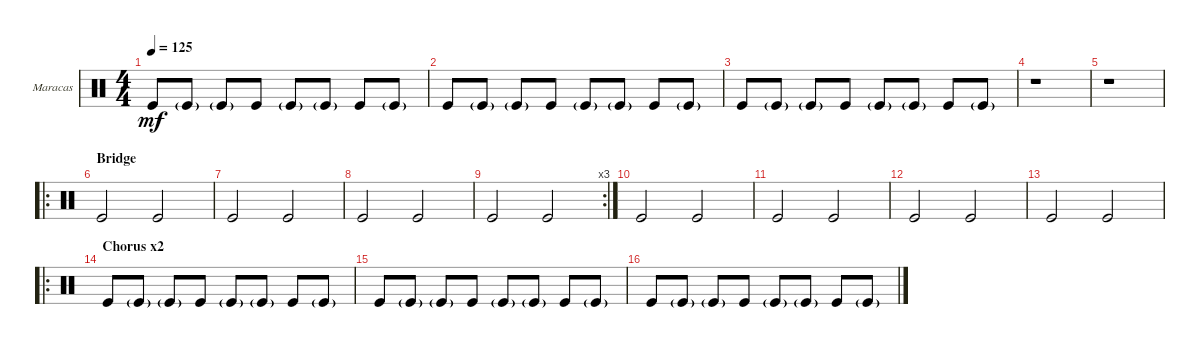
\defaultSystemsLayout 4
\bracketExtendMode groupsimilarinstruments
\firstSystemTrackNameOrientation horizontal
\otherSystemsTrackNameOrientation horizontal
\track ("Maracas" "Maracas") {instrument percussion}
\staff {score}
\articulation defaults
\ts (4 4)
\tempo 125
\clef neutral
\scale
0.333333
\ks c "Kick (hit)".8{dy mf} "Kick (hit)"{g}.8 "Kick (hit)"{g}.8 "Kick (hit)".8 "Kick (hit)"{g}.8 "Kick (hit)"{g}.8 "Kick (hit)".8 "Kick (hit)"{g}.8
|
\scale
0.333333 "Kick (hit)".8 "Kick (hit)"{g}.8 "Kick (hit)"{g}.8 "Kick (hit)".8 "Kick (hit)"{g}.8 "Kick (hit)"{g}.8 "Kick (hit)".8 "Kick (hit)"{g}.8 |
\scale
0.333333 "Kick (hit)".8 "Kick (hit)"{g}.8 "Kick (hit)"{g}.8 "Kick (hit)".8 "Kick (hit)"{g}.8 "Kick (hit)"{g}.8 "Kick (hit)".8 "Kick (hit)"{g}.8 |
\scale
0.333333 r.1 |
\scale
0.311111 r.1 |
\ro
\section ("" "Bridge")
\scale
0.377778 "Kick (hit)".2 "Kick (hit)".2 |
\scale
0.311111 "Kick (hit)".2 "Kick (hit)".2 |
\scale
0.321839 "Kick (hit)".2 "Kick (hit)".2 |
\rc 3
\scale
0.356322 "Kick (hit)".2 "Kick (hit)".2 |
\scale
0.321839 "Kick (hit)".2 "Kick (hit)".2 |
\scale
0.333333 "Kick (hit)".2 "Kick (hit)".2 |
\scale
0.333333 "Kick (hit)".2 "Kick (hit)".2 |
\scale
0.333333 "Kick (hit)".2 "Kick (hit)".2 |
\ro
\section ("" "Chorus x2")
\scale
0.377778 "Kick (hit)".8 "Kick (hit)"{g}.8 "Kick (hit)"{g}.8 "Kick (hit)".8 "Kick (hit)"{g}.8 "Kick (hit)"{g}.8 "Kick (hit)".8 "Kick (hit)"{g}.8 |
\scale
0.311111 "Kick (hit)".8 "Kick (hit)"{g}.8 "Kick (hit)"{g}.8 "Kick (hit)".8 "Kick (hit)"{g}.8 "Kick (hit)"{g}.8 "Kick (hit)".8 "Kick (hit)"{g}.8 |
\scale
0.311111 "Kick (hit)".8 "Kick (hit)"{g}.8 "Kick (hit)"{g}.8 "Kick (hit)".8 "Kick (hit)"{g}.8 "Kick (hit)"{g}.8 "Kick (hit)".8 "Kick (hit)"{g}.8
